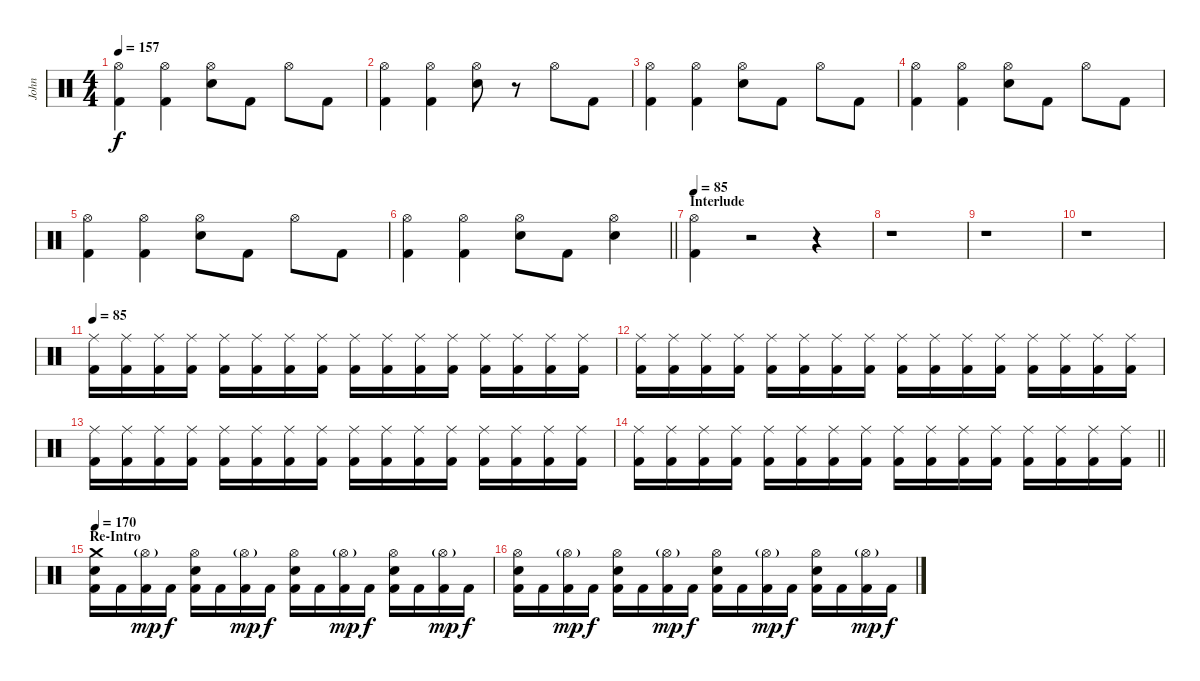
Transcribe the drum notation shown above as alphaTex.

\track ("John" "John") {instrument percussion}
\staff {score}
\articulation defaults
\ts (4 4)
\tempo 157
\clef neutral
\ks c
("Hi-Hat (open)" "Kick (hit) 2").4{dy f} ("Hi-Hat (open)" "Kick (hit) 2").4 ("Hi-Hat (open)" "Electric Snare (hit)").8 "Kick (hit) 2".8 "Hi-Hat (open)".8 "Kick (hit) 2".8 |
("Hi-Hat (open)" "Kick (hit) 2").4 ("Hi-Hat (open)" "Kick (hit) 2").4 ("Hi-Hat (open)" "Electric Snare (hit)").8 r.8 "Hi-Hat (open)".8 "Kick (hit) 2".8 |
("Hi-Hat (open)" "Kick (hit) 2").4 ("Hi-Hat (open)" "Kick (hit) 2").4 ("Hi-Hat (open)" "Electric Snare (hit)").8 "Kick (hit) 2".8 "Hi-Hat (open)".8 "Kick (hit) 2".8 |
("Hi-Hat (open)" "Kick (hit) 2").4 ("Hi-Hat (open)" "Kick (hit) 2").4 ("Hi-Hat (open)" "Electric Snare (hit)").8 "Kick (hit) 2".8 "Hi-Hat (open)".8 "Kick (hit) 2".8 |
("Hi-Hat (open)" "Kick (hit) 2").4 ("Hi-Hat (open)" "Kick (hit) 2").4 ("Hi-Hat (open)" "Electric Snare (hit)").8 "Kick (hit) 2".8 "Hi-Hat (open)".8 "Kick (hit) 2".8 |
\barLineRight lightlight
("Hi-Hat (open)" "Kick (hit) 2").4 ("Hi-Hat (open)" "Kick (hit) 2").4 ("Hi-Hat (open)" "Electric Snare (hit)").8 "Kick (hit) 2".8 ("Hi-Hat (open)" "Electric Snare (hit)").4 |
\section ("" "Interlude")
\tempo 85
("Hi-Hat (open)" "Kick (hit) 2").4 r.2 r.4 |
r.1 |
r.1 |
r.1 |
\tempo 85
("Ride (middle)" "Kick (hit) 2").16 ("Ride (middle)" "Kick (hit) 2").16 ("Ride (middle)" "Kick (hit) 2").16 ("Ride (middle)" "Kick (hit) 2").16 ("Ride (middle)" "Kick (hit) 2").16 ("Ride (middle)" "Kick (hit) 2").16 ("Ride (middle)" "Kick (hit) 2").16 ("Ride (middle)" "Kick (hit) 2").16 ("Ride (middle)" "Kick (hit) 2").16 ("Ride (middle)" "Kick (hit) 2").16 ("Ride (middle)" "Kick (hit) 2").16 ("Ride (middle)" "Kick (hit) 2").16 ("Ride (middle)" "Kick (hit) 2").16 ("Ride (middle)" "Kick (hit) 2").16 ("Ride (middle)" "Kick (hit) 2").16 ("Ride (middle)" "Kick (hit) 2").16 |
("Ride (middle)" "Kick (hit) 2").16 ("Ride (middle)" "Kick (hit) 2").16 ("Ride (middle)" "Kick (hit) 2").16 ("Ride (middle)" "Kick (hit) 2").16 ("Ride (middle)" "Kick (hit) 2").16 ("Ride (middle)" "Kick (hit) 2").16 ("Ride (middle)" "Kick (hit) 2").16 ("Ride (middle)" "Kick (hit) 2").16 ("Ride (middle)" "Kick (hit) 2").16 ("Ride (middle)" "Kick (hit) 2").16 ("Ride (middle)" "Kick (hit) 2").16 ("Ride (middle)" "Kick (hit) 2").16 ("Ride (middle)" "Kick (hit) 2").16 ("Ride (middle)" "Kick (hit) 2").16 ("Ride (middle)" "Kick (hit) 2").16 ("Ride (middle)" "Kick (hit) 2").16 |
("Ride (middle)" "Kick (hit) 2").16 ("Ride (middle)" "Kick (hit) 2").16 ("Ride (middle)" "Kick (hit) 2").16 ("Ride (middle)" "Kick (hit) 2").16 ("Ride (middle)" "Kick (hit) 2").16 ("Ride (middle)" "Kick (hit) 2").16 ("Ride (middle)" "Kick (hit) 2").16 ("Ride (middle)" "Kick (hit) 2").16 ("Ride (middle)" "Kick (hit) 2").16 ("Ride (middle)" "Kick (hit) 2").16 ("Ride (middle)" "Kick (hit) 2").16 ("Ride (middle)" "Kick (hit) 2").16 ("Ride (middle)" "Kick (hit) 2").16 ("Ride (middle)" "Kick (hit) 2").16 ("Ride (middle)" "Kick (hit) 2").16 ("Ride (middle)" "Kick (hit) 2").16 |
\barLineRight lightlight
("Ride (middle)" "Kick (hit) 2").16 ("Ride (middle)" "Kick (hit) 2").16 ("Ride (middle)" "Kick (hit) 2").16 ("Ride (middle)" "Kick (hit) 2").16 ("Ride (middle)" "Kick (hit) 2").16 ("Ride (middle)" "Kick (hit) 2").16 ("Ride (middle)" "Kick (hit) 2").16 ("Ride (middle)" "Kick (hit) 2").16 ("Ride (middle)" "Kick (hit) 2").16 ("Ride (middle)" "Kick (hit) 2").16 ("Ride (middle)" "Kick (hit) 2").16 ("Ride (middle)" "Kick (hit) 2").16 ("Ride (middle)" "Kick (hit) 2").16 ("Ride (middle)" "Kick (hit) 2").16 ("Ride (middle)" "Kick (hit) 2").16 ("Ride (middle)" "Kick (hit) 2").16 |
\section ("" "Re-Intro")
\tempo 170
("Crash medium (hit)" "Electric Snare (hit)" "Kick (hit) 2").16 "Kick (hit) 2".16 ("Hi-Hat (open)"{g} "Kick (hit) 2").16{dy mp} "Kick (hit) 2".16{dy f} ("Hi-Hat (open)" "Electric Snare (hit)" "Kick (hit) 2").16 "Kick (hit) 2".16 ("Hi-Hat (open)"{g} "Kick (hit) 2").16{dy mp} "Kick (hit) 2".16{dy f} ("Hi-Hat (open)" "Electric Snare (hit)" "Kick (hit) 2").16 "Kick (hit) 2".16 ("Hi-Hat (open)"{g} "Kick (hit) 2").16{dy mp} "Kick (hit) 2".16{dy f} ("Hi-Hat (open)" "Electric Snare (hit)" "Kick (hit) 2").16 "Kick (hit) 2".16 ("Hi-Hat (open)"{g} "Kick (hit) 2").16{dy mp} "Kick (hit) 2".16{dy f} |
("Hi-Hat (open)" "Electric Snare (hit)" "Kick (hit) 2").16 "Kick (hit) 2".16 ("Hi-Hat (open)"{g} "Kick (hit) 2").16{dy mp} "Kick (hit) 2".16{dy f} ("Hi-Hat (open)" "Electric Snare (hit)" "Kick (hit) 2").16 "Kick (hit) 2".16 ("Hi-Hat (open)"{g} "Kick (hit) 2").16{dy mp} "Kick (hit) 2".16{dy f} ("Hi-Hat (open)" "Electric Snare (hit)" "Kick (hit) 2").16 "Kick (hit) 2".16 ("Hi-Hat (open)"{g} "Kick (hit) 2").16{dy mp} "Kick (hit) 2".16{dy f} ("Hi-Hat (open)" "Electric Snare (hit)" "Kick (hit) 2").16 "Kick (hit) 2".16 ("Hi-Hat (open)"{g} "Kick (hit) 2").16{dy mp} "Kick (hit) 2".16{dy f}
